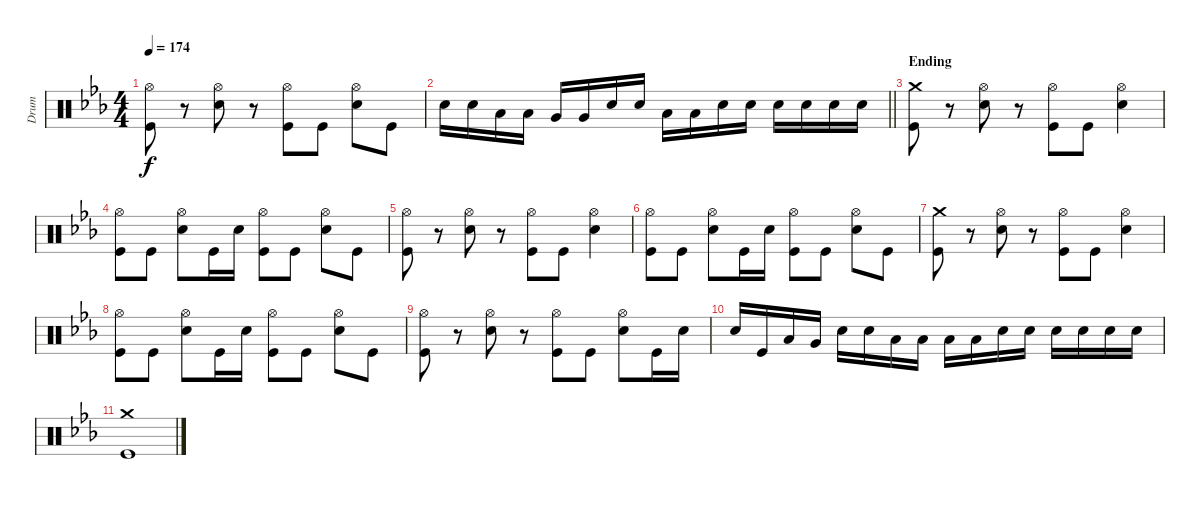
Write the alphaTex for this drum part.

\track ("Drum" "Drum") {instrument percussion}
\staff {score}
\articulation defaults
\ts (4 4)
\tempo 174
\clef neutral
\ks eb
("Hi-Hat (open)" "Kick (hit)").8{dy f} r.8 ("Hi-Hat (open)" "Snare (hit) 2").8 r.8 ("Hi-Hat (open)" "Kick (hit)").8 "Kick (hit)".8 ("Hi-Hat (open)" "Snare (hit) 2").8 "Kick (hit)".8 |
\barLineRight lightlight "Snare (hit) 2".16 "Snare (hit) 2".16 "Low Tom (hit)".16 "Low Tom (hit)".16 "Very Low Tom (hit)".16 "Very Low Tom (hit)".16 "Snare (hit) 2".16 "Snare (hit) 2".16 "Low Tom (hit)".16 "Low Tom (hit)".16 "Snare (hit) 2".16 "Snare (hit) 2".16 "Snare (hit) 2".16 "Snare (hit) 2".16 "Snare (hit) 2".16 "Snare (hit) 2".16
|
\section ("" "Ending")
("Crash medium (hit)" "Kick (hit)").8 r.8 ("Hi-Hat (open)" "Snare (hit) 2").8 r.8 ("Hi-Hat (open)" "Kick (hit)").8 "Kick (hit)".8 ("Hi-Hat (open)" "Snare (hit) 2").4 |
("Hi-Hat (open)" "Kick (hit)").8 "Kick (hit)".8 ("Hi-Hat (open)" "Snare (hit) 2").8 "Kick (hit)".16 "Snare (hit) 2".16 ("Hi-Hat (open)" "Kick (hit)").8 "Kick (hit)".8 ("Hi-Hat (open)" "Snare (hit) 2").8 "Kick (hit)".8 |
("Hi-Hat (open)" "Kick (hit)").8 r.8 ("Hi-Hat (open)" "Snare (hit) 2").8 r.8 ("Hi-Hat (open)" "Kick (hit)").8 "Kick (hit)".8 ("Hi-Hat (open)" "Snare (hit) 2").4 |
("Hi-Hat (open)" "Kick (hit)").8 "Kick (hit)".8 ("Hi-Hat (open)" "Snare (hit) 2").8 "Kick (hit)".16 "Snare (hit) 2".16 ("Hi-Hat (open)" "Kick (hit)").8 "Kick (hit)".8 ("Hi-Hat (open)" "Snare (hit) 2").8 "Kick (hit)".8 |
("Crash medium (hit)" "Kick (hit)").8 r.8 ("Hi-Hat (open)" "Snare (hit) 2").8 r.8 ("Hi-Hat (open)" "Kick (hit)").8 "Kick (hit)".8 ("Hi-Hat (open)" "Snare (hit) 2").4 |
("Hi-Hat (open)" "Kick (hit)").8 "Kick (hit)".8 ("Hi-Hat (open)" "Snare (hit) 2").8 "Kick (hit)".16 "Snare (hit) 2".16 ("Hi-Hat (open)" "Kick (hit)").8 "Kick (hit)".8 ("Hi-Hat (open)" "Snare (hit) 2").8 "Kick (hit)".8 |
("Hi-Hat (open)" "Kick (hit)").8 r.8 ("Hi-Hat (open)" "Snare (hit) 2").8 r.8 ("Hi-Hat (open)" "Kick (hit)").8 "Kick (hit)".8 ("Hi-Hat (open)" "Snare (hit) 2").8 "Kick (hit)".16 "Snare (hit) 2".16 |
"Snare (hit) 2".16 "Kick (hit)".16 "Low Tom (hit)".16 "Very Low Tom (hit)".16 "Snare (hit) 2".16 "Snare (hit) 2".16 "Low Tom (hit)".16 "Low Tom (hit)".16 "Low Tom (hit)".16 "Low Tom (hit)".16 "Snare (hit) 2".16 "Snare (hit) 2".16 "Snare (hit) 2".16 "Snare (hit) 2".16 "Snare (hit) 2".16 "Snare (hit) 2".16 |
("Crash medium (hit)" "Kick (hit)").1
